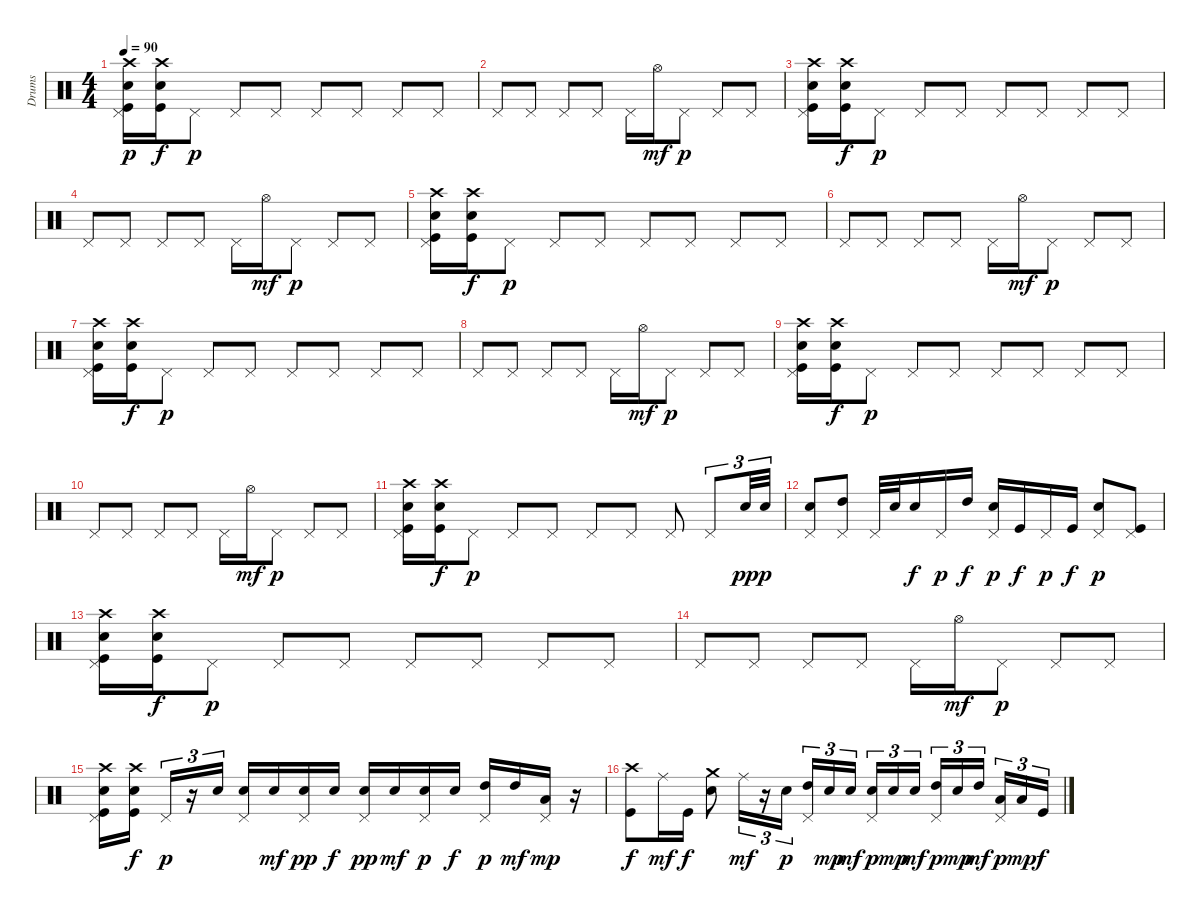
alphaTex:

\track ("Drums" "Drums") {instrument percussion}
\staff {score}
\articulation defaults
\ts (4 4)
\tempo 90
\clef neutral
\ks c
("Crash high (hit)" "Pedal Hi-Hat (hit)" "Snare (hit) 2" "Kick (hit)").16{dy p} ("Crash high (hit)" "Snare (hit) 2" "Kick (hit)").16{dy f} "Pedal Hi-Hat (hit)".8{dy p} "Pedal Hi-Hat (hit)".8 "Pedal Hi-Hat (hit)".8 "Pedal Hi-Hat (hit)".8 "Pedal Hi-Hat (hit)".8 "Pedal Hi-Hat (hit)".8 "Pedal Hi-Hat (hit)".8 |
"Pedal Hi-Hat (hit)".8 "Pedal Hi-Hat (hit)".8 "Pedal Hi-Hat (hit)".8 "Pedal Hi-Hat (hit)".8 "Pedal Hi-Hat (hit)".16 "Hi-Hat (open)".16{dy mf} "Pedal Hi-Hat (hit)".8{dy p} "Pedal Hi-Hat (hit)".8 "Pedal Hi-Hat (hit)".8 |
("Crash high (hit)" "Pedal Hi-Hat (hit)" "Snare (hit) 2" "Kick (hit)").16 ("Crash high (hit)" "Snare (hit) 2" "Kick (hit)").16{dy f} "Pedal Hi-Hat (hit)".8{dy p} "Pedal Hi-Hat (hit)".8 "Pedal Hi-Hat (hit)".8 "Pedal Hi-Hat (hit)".8 "Pedal Hi-Hat (hit)".8 "Pedal Hi-Hat (hit)".8 "Pedal Hi-Hat (hit)".8 |
"Pedal Hi-Hat (hit)".8 "Pedal Hi-Hat (hit)".8 "Pedal Hi-Hat (hit)".8 "Pedal Hi-Hat (hit)".8 "Pedal Hi-Hat (hit)".16 "Hi-Hat (open)".16{dy mf} "Pedal Hi-Hat (hit)".8{dy p} "Pedal Hi-Hat (hit)".8 "Pedal Hi-Hat (hit)".8 |
("Crash high (hit)" "Pedal Hi-Hat (hit)" "Snare (hit) 2" "Kick (hit)").16 ("Crash high (hit)" "Snare (hit) 2" "Kick (hit)").16{dy f} "Pedal Hi-Hat (hit)".8{dy p} "Pedal Hi-Hat (hit)".8 "Pedal Hi-Hat (hit)".8 "Pedal Hi-Hat (hit)".8 "Pedal Hi-Hat (hit)".8 "Pedal Hi-Hat (hit)".8 "Pedal Hi-Hat (hit)".8 |
"Pedal Hi-Hat (hit)".8 "Pedal Hi-Hat (hit)".8 "Pedal Hi-Hat (hit)".8 "Pedal Hi-Hat (hit)".8 "Pedal Hi-Hat (hit)".16 "Hi-Hat (open)".16{dy mf} "Pedal Hi-Hat (hit)".8{dy p} "Pedal Hi-Hat (hit)".8 "Pedal Hi-Hat (hit)".8 |
("Crash high (hit)" "Pedal Hi-Hat (hit)" "Snare (hit) 2" "Kick (hit)").16 ("Crash high (hit)" "Snare (hit) 2" "Kick (hit)").16{dy f} "Pedal Hi-Hat (hit)".8{dy p} "Pedal Hi-Hat (hit)".8 "Pedal Hi-Hat (hit)".8 "Pedal Hi-Hat (hit)".8 "Pedal Hi-Hat (hit)".8 "Pedal Hi-Hat (hit)".8 "Pedal Hi-Hat (hit)".8 |
"Pedal Hi-Hat (hit)".8 "Pedal Hi-Hat (hit)".8 "Pedal Hi-Hat (hit)".8 "Pedal Hi-Hat (hit)".8 "Pedal Hi-Hat (hit)".16 "Hi-Hat (open)".16{dy mf} "Pedal Hi-Hat (hit)".8{dy p} "Pedal Hi-Hat (hit)".8 "Pedal Hi-Hat (hit)".8 |
("Crash high (hit)" "Pedal Hi-Hat (hit)" "Snare (hit) 2" "Kick (hit)").16 ("Crash high (hit)" "Snare (hit) 2" "Kick (hit)").16{dy f} "Pedal Hi-Hat (hit)".8{dy p} "Pedal Hi-Hat (hit)".8 "Pedal Hi-Hat (hit)".8 "Pedal Hi-Hat (hit)".8 "Pedal Hi-Hat (hit)".8 "Pedal Hi-Hat (hit)".8 "Pedal Hi-Hat (hit)".8 |
"Pedal Hi-Hat (hit)".8 "Pedal Hi-Hat (hit)".8 "Pedal Hi-Hat (hit)".8 "Pedal Hi-Hat (hit)".8 "Pedal Hi-Hat (hit)".16 "Hi-Hat (open)".16{dy mf} "Pedal Hi-Hat (hit)".8{dy p} "Pedal Hi-Hat (hit)".8 "Pedal Hi-Hat (hit)".8 |
("Crash high (hit)" "Pedal Hi-Hat (hit)" "Snare (hit) 2" "Kick (hit)").16 ("Crash high (hit)" "Snare (hit) 2" "Kick (hit)").16{dy f} "Pedal Hi-Hat (hit)".8{dy p} "Pedal Hi-Hat (hit)".8 "Pedal Hi-Hat (hit)".8 "Pedal Hi-Hat (hit)".8 "Pedal Hi-Hat (hit)".8 "Pedal Hi-Hat (hit)".8 "Pedal Hi-Hat (hit)".8{tu (3 2)} "Snare (hit) 2".32{tu (3 2) dy pp} "Snare (hit) 2".32{tu (3 2) dy p} |
("Pedal Hi-Hat (hit)" "Snare (hit) 2").8 ("Pedal Hi-Hat (hit)" "High Tom (hit)").8 "Pedal Hi-Hat (hit)".32 "Snare (hit) 2".32 "Snare (hit) 2".16{dy f} "Pedal Hi-Hat (hit)".16{dy p} "High Tom (hit)".16{dy f} ("Pedal Hi-Hat (hit)" "Snare (hit) 2").16{dy p} "Kick (hit)".16{dy f} "Pedal Hi-Hat (hit)".16{dy p} "Kick (hit)".16{dy f} ("Pedal Hi-Hat (hit)" "Snare (hit) 2").8{dy p} ("Pedal Hi-Hat (hit)" "Kick (hit)").8 |
("Crash high (hit)" "Pedal Hi-Hat (hit)" "Snare (hit) 2" "Kick (hit)").16 ("Crash high (hit)" "Snare (hit) 2" "Kick (hit)").16{dy f} "Pedal Hi-Hat (hit)".8{dy p} "Pedal Hi-Hat (hit)".8 "Pedal Hi-Hat (hit)".8 "Pedal Hi-Hat (hit)".8 "Pedal Hi-Hat (hit)".8 "Pedal Hi-Hat (hit)".8 "Pedal Hi-Hat (hit)".8 |
"Pedal Hi-Hat (hit)".8 "Pedal Hi-Hat (hit)".8 "Pedal Hi-Hat (hit)".8 "Pedal Hi-Hat (hit)".8 "Pedal Hi-Hat (hit)".16 "Hi-Hat (open)".16{dy mf} "Pedal Hi-Hat (hit)".8{dy p} "Pedal Hi-Hat (hit)".8 "Pedal Hi-Hat (hit)".8 |
("Crash high (hit)" "Pedal Hi-Hat (hit)" "Snare (hit) 2" "Kick (hit)").16 ("Crash high (hit)" "Snare (hit) 2" "Kick (hit)").16{dy f} "Pedal Hi-Hat (hit)".16{tu (3 2) dy p} r.16{tu (3 2)} "Snare (hit) 2".16{tu (3 2)} ("Pedal Hi-Hat (hit)" "Snare (hit) 2").16 "Snare (hit) 2".16{dy mf} ("Pedal Hi-Hat (hit)" "Snare (hit) 2").16{dy pp} "Snare (hit) 2".16{dy f} ("Pedal Hi-Hat (hit)" "Snare (hit) 2").16{dy pp} "Snare (hit) 2".16{dy mf} ("Pedal Hi-Hat (hit)" "Snare (hit) 2").16{dy p} "Snare (hit) 2".16{dy f} ("Pedal Hi-Hat (hit)" "High Tom (hit)").16{dy p} "High Tom (hit)".16{dy mf} ("Pedal Hi-Hat (hit)" "Low Tom (hit)").16{dy mp} r.16 |
("Crash high (hit)" "Kick (hit)").8{dy f} "Ride (middle)".16{dy mf} "Kick (hit)".16{dy f} ("Crash medium (hit)" "Snare (hit) 2").8 "Ride (middle)".16{tu (3 2) dy mf} r.16{tu (3 2)} "Snare (hit) 2".16{tu (3 2) dy p} ("Pedal Hi-Hat (hit)" "High Tom (hit)").16{tu (3 2)} "Snare (hit) 2".16{tu (3 2) dy mp} "Snare (hit) 2".16{tu (3 2) dy mf} ("Pedal Hi-Hat (hit)" "Snare (hit) 2").16{tu (3 2) dy p} "Snare (hit) 2".16{tu (3 2) dy mp} "Snare (hit) 2".16{tu (3 2) dy mf} ("Pedal Hi-Hat (hit)" "High Tom (hit)").16{tu (3 2) dy p} "Snare (hit) 2".16{tu (3 2) dy mp} "High Tom (hit)".16{tu (3 2) dy mf} ("Pedal Hi-Hat (hit)" "Low Tom (hit)").16{tu (3 2) dy p} "Low Tom (hit)".16{tu (3 2) dy mp} "Kick (hit)".16{tu (3 2) dy f}
